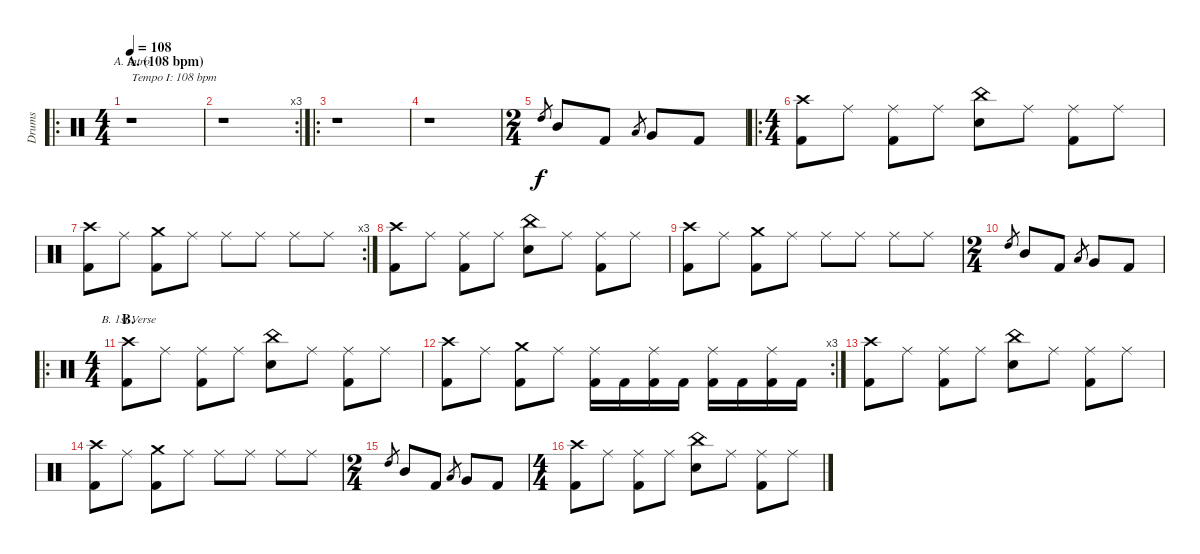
\track ("Drums" "Drums") {instrument percussion}
\staff {score}
\articulation defaults
\chord ("A. Intro")
\chord ("B. 1st Verse")
\ro
\ts (4 4)
\section ("" "A. (108 bpm)")
\tempo 108
\clef neutral
\ks c
r.1{ch "A. Intro" txt "Tempo I: 108 bpm" dy f} |
\rc 3
r.1 |
\ro
r.1 |
r.1 |
\ts (2 4)
"High Tom (hit)".8{gr} "Mid Tom (hit)".8 "Kick (hit) 2".8 "Low Tom (hit)".8{gr} "Very Low Tom (hit)".8 "Kick (hit) 2".8 |
\ro
\ts (4 4)
("Crash high (hit)" "Kick (hit) 2").8 "Ride (middle)".8 ("Ride (middle)" "Kick (hit) 2").8 "Ride (middle)".8 ("China (hit)" "Electric Snare (hit)").8 "Ride (middle)".8 ("Ride (middle)" "Kick (hit) 2").8 "Ride (middle)".8 |
\rc 3
("Crash high (hit)" "Kick (hit) 2").8 "Ride (middle)".8 ("Crash medium (hit)" "Kick (hit) 2").8 "Ride (middle)".8 "Ride (middle)".8 "Ride (middle)".8 "Ride (middle)".8 "Ride (middle)".8 |
("Crash high (hit)" "Kick (hit) 2").8 "Ride (middle)".8 ("Ride (middle)" "Kick (hit) 2").8 "Ride (middle)".8 ("China (hit)" "Electric Snare (hit)").8 "Ride (middle)".8 ("Ride (middle)" "Kick (hit) 2").8 "Ride (middle)".8 |
("Crash high (hit)" "Kick (hit) 2").8 "Ride (middle)".8 ("Crash medium (hit)" "Kick (hit) 2").8 "Ride (middle)".8 "Ride (middle)".8 "Ride (middle)".8 "Ride (middle)".8 "Ride (middle)".8 |
\ts (2 4)
"High Tom (hit)".8{gr} "Mid Tom (hit)".8 "Kick (hit) 2".8 "Low Tom (hit)".8{gr} "Very Low Tom (hit)".8 "Kick (hit) 2".8 |
\ro
\ts (4 4)
\section ("" "B.")
("Crash high (hit)" "Kick (hit) 2").8{ch "B. 1st Verse"} "Ride (middle)".8 ("Ride (middle)" "Kick (hit) 2").8 "Ride (middle)".8 ("China (hit)" "Electric Snare (hit)").8 "Ride (middle)".8 ("Ride (middle)" "Kick (hit) 2").8 "Ride (middle)".8 |
\rc 3
("Crash high (hit)" "Kick (hit) 2").8 "Ride (middle)".8 ("Crash medium (hit)" "Kick (hit) 2").8 "Ride (middle)".8 ("Ride (middle)" "Kick (hit) 2").16 "Kick (hit) 2".16 ("Ride (middle)" "Kick (hit) 2").16 "Kick (hit) 2".16 ("Ride (middle)" "Kick (hit) 2").16 "Kick (hit) 2".16 ("Ride (middle)" "Kick (hit) 2").16 "Kick (hit) 2".16 |
("Crash high (hit)" "Kick (hit) 2").8 "Ride (middle)".8 ("Ride (middle)" "Kick (hit) 2").8 "Ride (middle)".8 ("China (hit)" "Electric Snare (hit)").8 "Ride (middle)".8 ("Ride (middle)" "Kick (hit) 2").8 "Ride (middle)".8 |
("Crash high (hit)" "Kick (hit) 2").8 "Ride (middle)".8 ("Crash medium (hit)" "Kick (hit) 2").8 "Ride (middle)".8 "Ride (middle)".8 "Ride (middle)".8 "Ride (middle)".8 "Ride (middle)".8 |
\ts (2 4)
"High Tom (hit)".8{gr} "Mid Tom (hit)".8 "Kick (hit) 2".8 "Low Tom (hit)".8{gr} "Very Low Tom (hit)".8 "Kick (hit) 2".8 |
\ts (4 4)
("Crash high (hit)" "Kick (hit) 2").8 "Ride (middle)".8 ("Ride (middle)" "Kick (hit) 2").8 "Ride (middle)".8 ("China (hit)" "Electric Snare (hit)").8 "Ride (middle)".8 ("Ride (middle)" "Kick (hit) 2").8 "Ride (middle)".8
